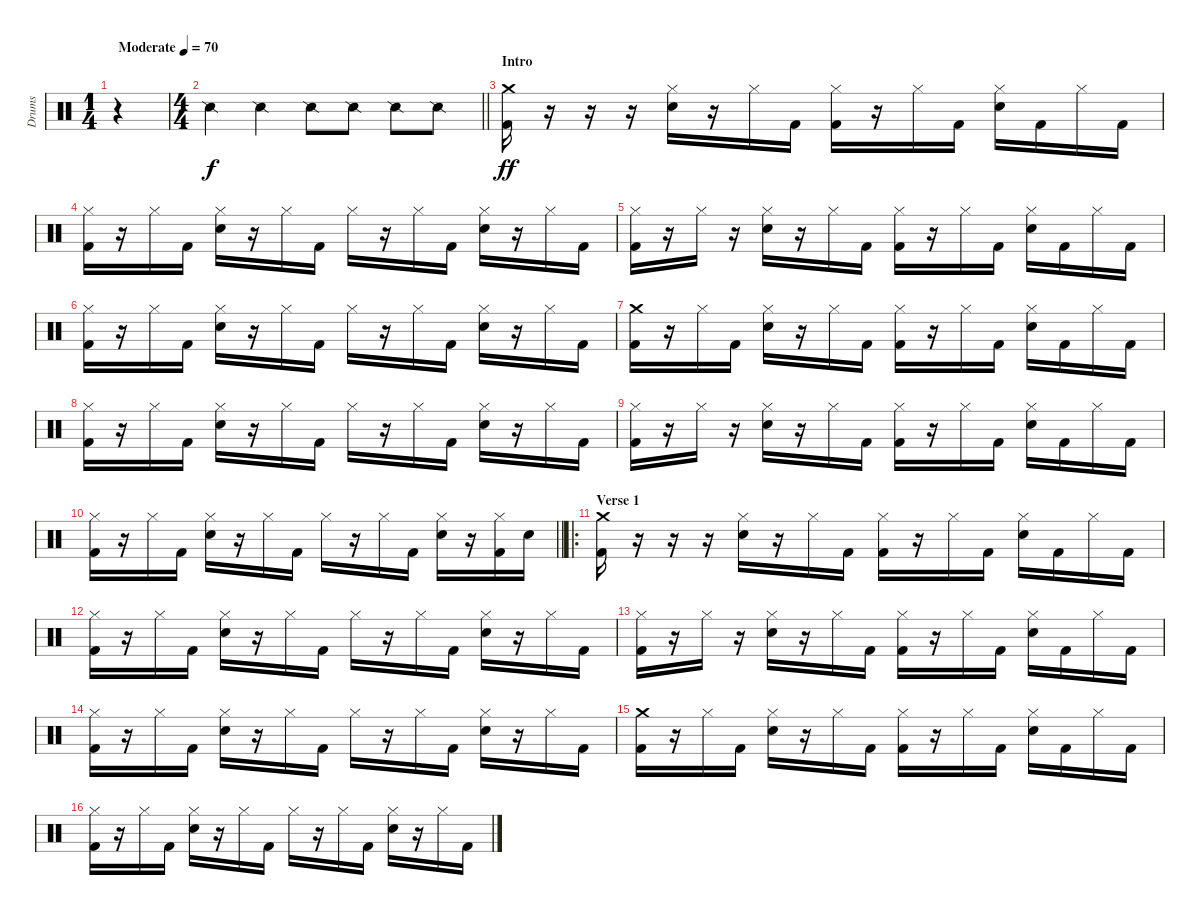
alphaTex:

\track ("Drums" "Drums") {instrument percussion}
\staff {score}
\articulation defaults
\voice
\ts (1 4)
\tempo (70 "Moderate")
\clef neutral
\ks c
r.4{dy f} |
\ts (4 4)
\barLineRight lightlight "Snare (side stick) 2".4 "Snare (side stick) 2".4 "Snare (side stick) 2".8 "Snare (side stick) 2".8 "Snare (side stick) 2".8 "Snare (side stick) 2".8
|
\section ("" "Intro")
("Crash medium (hit)" "Kick (hit) 2").16{dy ff} r.16 r.16 r.16 ("Hi-Hat (closed)" "Snare (hit) 2").16 r.16 "Hi-Hat (closed)".16 "Kick (hit) 2".16 ("Hi-Hat (closed)" "Kick (hit) 2").16 r.16 "Hi-Hat (closed)".16 "Kick (hit) 2".16 ("Hi-Hat (closed)" "Snare (hit) 2").16 "Kick (hit) 2".16 "Hi-Hat (closed)".16 "Kick (hit) 2".16 |
("Hi-Hat (closed)" "Kick (hit) 2").16 r.16 "Hi-Hat (closed)".16 "Kick (hit) 2".16 ("Hi-Hat (closed)" "Snare (hit) 2").16 r.16 "Hi-Hat (closed)".16 "Kick (hit) 2".16 "Hi-Hat (closed)".16 r.16 "Hi-Hat (closed)".16 "Kick (hit) 2".16 ("Hi-Hat (closed)" "Snare (hit) 2").16 r.16 "Hi-Hat (closed)".16 "Kick (hit) 2".16 |
("Hi-Hat (closed)" "Kick (hit) 2").16 r.16 "Hi-Hat (closed)".16 r.16 ("Hi-Hat (closed)" "Snare (hit) 2").16 r.16 "Hi-Hat (closed)".16 "Kick (hit) 2".16 ("Hi-Hat (closed)" "Kick (hit) 2").16 r.16 "Hi-Hat (closed)".16 "Kick (hit) 2".16 ("Hi-Hat (closed)" "Snare (hit) 2").16 "Kick (hit) 2".16 "Hi-Hat (closed)".16 "Kick (hit) 2".16 |
("Hi-Hat (closed)" "Kick (hit) 2").16 r.16 "Hi-Hat (closed)".16 "Kick (hit) 2".16 ("Hi-Hat (closed)" "Snare (hit) 2").16 r.16 "Hi-Hat (closed)".16 "Kick (hit) 2".16 "Hi-Hat (closed)".16 r.16 "Hi-Hat (closed)".16 "Kick (hit) 2".16 ("Hi-Hat (closed)" "Snare (hit) 2").16 r.16 "Hi-Hat (closed)".16 "Kick (hit) 2".16 |
("Crash medium (hit)" "Kick (hit) 2").16 r.16 "Hi-Hat (closed)".16 "Kick (hit) 2".16 ("Hi-Hat (closed)" "Snare (hit) 2").16 r.16 "Hi-Hat (closed)".16 "Kick (hit) 2".16 ("Hi-Hat (closed)" "Kick (hit) 2").16 r.16 "Hi-Hat (closed)".16 "Kick (hit) 2".16 ("Hi-Hat (closed)" "Snare (hit) 2").16 "Kick (hit) 2".16 "Hi-Hat (closed)".16 "Kick (hit) 2".16 |
("Hi-Hat (closed)" "Kick (hit) 2").16 r.16 "Hi-Hat (closed)".16 "Kick (hit) 2".16 ("Hi-Hat (closed)" "Snare (hit) 2").16 r.16 "Hi-Hat (closed)".16 "Kick (hit) 2".16 "Hi-Hat (closed)".16 r.16 "Hi-Hat (closed)".16 "Kick (hit) 2".16 ("Hi-Hat (closed)" "Snare (hit) 2").16 r.16 "Hi-Hat (closed)".16 "Kick (hit) 2".16 |
("Hi-Hat (closed)" "Kick (hit) 2").16 r.16 "Hi-Hat (closed)".16 r.16 ("Hi-Hat (closed)" "Snare (hit) 2").16 r.16 "Hi-Hat (closed)".16 "Kick (hit) 2".16 ("Hi-Hat (closed)" "Kick (hit) 2").16 r.16 "Hi-Hat (closed)".16 "Kick (hit) 2".16 ("Hi-Hat (closed)" "Snare (hit) 2").16 "Kick (hit) 2".16 "Hi-Hat (closed)".16 "Kick (hit) 2".16 |
\barLineRight lightlight
("Hi-Hat (closed)" "Kick (hit) 2").16 r.16 "Hi-Hat (closed)".16 "Kick (hit) 2".16 ("Hi-Hat (closed)" "Snare (hit) 2").16 r.16 "Hi-Hat (closed)".16 "Kick (hit) 2".16 "Hi-Hat (closed)".16 r.16 "Hi-Hat (closed)".16 "Kick (hit) 2".16 ("Hi-Hat (closed)" "Snare (hit) 2").16 r.16 ("Hi-Hat (closed)" "Kick (hit) 2").16 "Snare (hit) 2".16 |
\ro
\section ("" "Verse 1")
("Crash medium (hit)" "Kick (hit) 2").16 r.16 r.16 r.16 ("Hi-Hat (closed)" "Snare (hit) 2").16 r.16 "Hi-Hat (closed)".16 "Kick (hit) 2".16 ("Hi-Hat (closed)" "Kick (hit) 2").16 r.16 "Hi-Hat (closed)".16 "Kick (hit) 2".16 ("Hi-Hat (closed)" "Snare (hit) 2").16 "Kick (hit) 2".16 "Hi-Hat (closed)".16 "Kick (hit) 2".16 |
("Hi-Hat (closed)" "Kick (hit) 2").16 r.16 "Hi-Hat (closed)".16 "Kick (hit) 2".16 ("Hi-Hat (closed)" "Snare (hit) 2").16 r.16 "Hi-Hat (closed)".16 "Kick (hit) 2".16 "Hi-Hat (closed)".16 r.16 "Hi-Hat (closed)".16 "Kick (hit) 2".16 ("Hi-Hat (closed)" "Snare (hit) 2").16 r.16 "Hi-Hat (closed)".16 "Kick (hit) 2".16 |
("Hi-Hat (closed)" "Kick (hit) 2").16 r.16 "Hi-Hat (closed)".16 r.16 ("Hi-Hat (closed)" "Snare (hit) 2").16 r.16 "Hi-Hat (closed)".16 "Kick (hit) 2".16 ("Hi-Hat (closed)" "Kick (hit) 2").16 r.16 "Hi-Hat (closed)".16 "Kick (hit) 2".16 ("Hi-Hat (closed)" "Snare (hit) 2").16 "Kick (hit) 2".16 "Hi-Hat (closed)".16 "Kick (hit) 2".16 |
("Hi-Hat (closed)" "Kick (hit) 2").16 r.16 "Hi-Hat (closed)".16 "Kick (hit) 2".16 ("Hi-Hat (closed)" "Snare (hit) 2").16 r.16 "Hi-Hat (closed)".16 "Kick (hit) 2".16 "Hi-Hat (closed)".16 r.16 "Hi-Hat (closed)".16 "Kick (hit) 2".16 ("Hi-Hat (closed)" "Snare (hit) 2").16 r.16 "Hi-Hat (closed)".16 "Kick (hit) 2".16 |
("Crash medium (hit)" "Kick (hit) 2").16 r.16 "Hi-Hat (closed)".16 "Kick (hit) 2".16 ("Hi-Hat (closed)" "Snare (hit) 2").16 r.16 "Hi-Hat (closed)".16 "Kick (hit) 2".16 ("Hi-Hat (closed)" "Kick (hit) 2").16 r.16 "Hi-Hat (closed)".16 "Kick (hit) 2".16 ("Hi-Hat (closed)" "Snare (hit) 2").16 "Kick (hit) 2".16 "Hi-Hat (closed)".16 "Kick (hit) 2".16 |
("Hi-Hat (closed)" "Kick (hit) 2").16 r.16 "Hi-Hat (closed)".16 "Kick (hit) 2".16 ("Hi-Hat (closed)" "Snare (hit) 2").16 r.16 "Hi-Hat (closed)".16 "Kick (hit) 2".16 "Hi-Hat (closed)".16 r.16 "Hi-Hat (closed)".16 "Kick (hit) 2".16 ("Hi-Hat (closed)" "Snare (hit) 2").16 r.16 "Hi-Hat (closed)".16 "Kick (hit) 2".16
\voice
\clef neutral
\ottava regular
\simile none
\ks c
r.4{dy f} |
\barLineRight lightlight
|
|
|
|
|
|
|
|
\barLineRight lightlight
|
|
|
|
|
|
